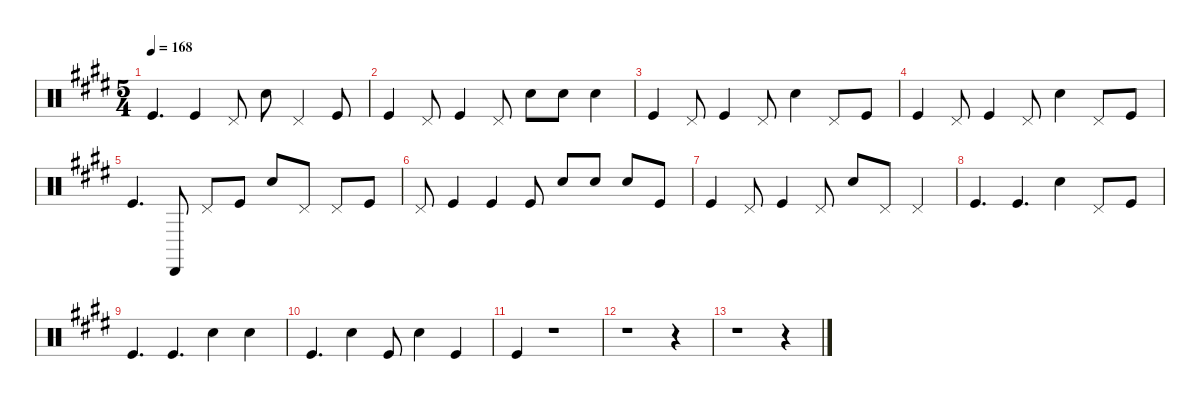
\defaultSystemsLayout 4
\hideDynamics
\bracketExtendMode nobrackets
\singleTrackTrackNamePolicy hidden
\multiTrackTrackNamePolicy hidden
\firstSystemTrackNameMode fullname
\firstSystemTrackNameOrientation horizontal
\otherSystemsTrackNameOrientation horizontal
\track ("Percussion" "drm.") {instrument percussion}
\staff {score}
\articulation defaults
\ts (5 4)
\tempo 168
\clef neutral
\ks c#minor "Kick (hit)"{acc forcenatural}.4{d dy f beam Up} "Kick (hit)"{acc forcenatural}.4{beam Up} "Pedal Hi-Hat (hit)"{acc forcenatural}.8{beam Up} "Snare (hit) 2"{acc forcenatural}.8{beam Down} "Pedal Hi-Hat (hit)"{acc forcenatural}.4{beam Up} "Kick (hit)"{acc forcenatural}.8{beam Up}
|
"Kick (hit)"{acc forcenatural}.4{beam Up} "Pedal Hi-Hat (hit)"{acc forcenatural}.8{beam Up} "Kick (hit)"{acc forcenatural}.4{beam Up} "Pedal Hi-Hat (hit)"{acc forcenatural}.8{beam Up} "Snare (hit) 2"{acc forcenatural}.8{beam Down} "Snare (hit) 2"{acc forcenatural}.8{beam Down} "Snare (hit) 2"{acc forcenatural}.4{beam Down} |
"Kick (hit)"{acc forcenatural}.4{beam Up} "Pedal Hi-Hat (hit)"{acc forcenatural}.8{beam Up} "Kick (hit)"{acc forcenatural}.4{beam Up} "Pedal Hi-Hat (hit)"{acc forcenatural}.8{beam Up} "Snare (hit) 2"{acc forcenatural}.4{beam Down} "Pedal Hi-Hat (hit)"{acc forcenatural}.8{beam Up} "Kick (hit)"{acc forcenatural}.8{beam Up} |
"Kick (hit)"{acc forcenatural}.4{beam Up} "Pedal Hi-Hat (hit)"{acc forcenatural}.8{beam Up} "Kick (hit)"{acc forcenatural}.4{beam Up} "Pedal Hi-Hat (hit)"{acc forcenatural}.8{beam Up} "Snare (hit) 2"{acc forcenatural}.4{beam Down} "Pedal Hi-Hat (hit)"{acc forcenatural}.8{beam Up} "Kick (hit)"{acc forcenatural}.8{beam Up} |
"Kick (hit)"{acc forcenatural}.4{d beam Up} "Cabasa (hit)"{acc forcenatural}.8{beam Up} "Pedal Hi-Hat (hit)"{acc forcenatural}.8{beam Up} "Kick (hit)"{acc forcenatural}.8{beam Up} "Snare (hit) 2"{acc forcenatural}.8{beam Up} "Pedal Hi-Hat (hit)"{acc forcenatural}.8{beam Up} "Pedal Hi-Hat (hit)"{acc forcenatural}.8{beam Up} "Kick (hit)"{acc forcenatural}.8{beam Up} |
"Pedal Hi-Hat (hit)"{acc forcenatural}.8{beam Up} "Kick (hit)"{acc forcenatural}.4{beam Up} "Kick (hit)"{acc forcenatural}.4{beam Up} "Kick (hit)"{acc forcenatural}.8{beam Up} "Snare (hit) 2"{acc forcenatural}.8{beam Up} "Snare (hit) 2"{acc forcenatural}.8{beam Up} "Snare (hit) 2"{acc forcenatural}.8{beam Up} "Kick (hit)"{acc forcenatural}.8{beam Up} |
"Kick (hit)"{acc forcenatural}.4{beam Up} "Pedal Hi-Hat (hit)"{acc forcenatural}.8{beam Up} "Kick (hit)"{acc forcenatural}.4{beam Up} "Pedal Hi-Hat (hit)"{acc forcenatural}.8{beam Up} "Snare (hit) 2"{acc forcenatural}.8{beam Up} "Pedal Hi-Hat (hit)"{acc forcenatural}.8{beam Up} "Pedal Hi-Hat (hit)"{acc forcenatural}.4{beam Up} |
"Kick (hit)"{acc forcenatural}.4{d beam Up} "Kick (hit)"{acc forcenatural}.4{d beam Up} "Snare (hit) 2"{acc forcenatural}.4{beam Down} "Pedal Hi-Hat (hit)"{acc forcenatural}.8{beam Up} "Kick (hit)"{acc forcenatural}.8{beam Up} |
"Kick (hit)"{acc forcenatural}.4{d beam Up} "Kick (hit)"{acc forcenatural}.4{d beam Up} "Snare (hit) 2"{acc forcenatural}.4{beam Down} "Snare (hit) 2"{acc forcenatural}.4{beam Down} |
"Kick (hit)"{acc forcenatural}.4{d beam Up} "Snare (hit) 2"{acc forcenatural}.4{beam Down} "Kick (hit)"{acc forcenatural}.8{beam Up} "Snare (hit) 2"{acc forcenatural}.4{beam Down} "Kick (hit)"{acc forcenatural}.4{beam Up} |
\tempo (60 hide)
"Kick (hit)"{acc forcenatural}.4{beam Up} r.1{beam Down} |
r.1{beam Down} r.4{beam Down} |
r.1{beam Down} r.4{beam Down}
